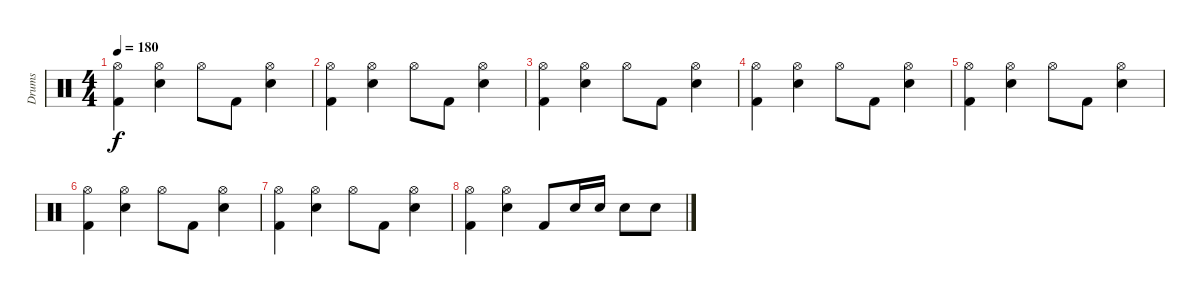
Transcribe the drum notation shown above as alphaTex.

\track ("Drums" "Drums") {instrument percussion}
\staff {score}
\articulation defaults
\ts (4 4)
\tempo 180
\clef neutral
\ks c
("Hi-Hat (open)" "Kick (hit) 2").4{dy f} ("Hi-Hat (open)" "Electric Snare (hit)").4 "Hi-Hat (open)".8 "Kick (hit) 2".8 ("Hi-Hat (open)" "Electric Snare (hit)").4 |
("Hi-Hat (open)" "Kick (hit) 2").4 ("Hi-Hat (open)" "Electric Snare (hit)").4 "Hi-Hat (open)".8 "Kick (hit) 2".8 ("Hi-Hat (open)" "Electric Snare (hit)").4 |
("Hi-Hat (open)" "Kick (hit) 2").4 ("Hi-Hat (open)" "Electric Snare (hit)").4 "Hi-Hat (open)".8 "Kick (hit) 2".8 ("Hi-Hat (open)" "Electric Snare (hit)").4 |
("Hi-Hat (open)" "Kick (hit) 2").4 ("Hi-Hat (open)" "Electric Snare (hit)").4 "Hi-Hat (open)".8 "Kick (hit) 2".8 ("Hi-Hat (open)" "Electric Snare (hit)").4 |
("Hi-Hat (open)" "Kick (hit) 2").4 ("Hi-Hat (open)" "Electric Snare (hit)").4 "Hi-Hat (open)".8 "Kick (hit) 2".8 ("Hi-Hat (open)" "Electric Snare (hit)").4 |
("Hi-Hat (open)" "Kick (hit) 2").4 ("Hi-Hat (open)" "Electric Snare (hit)").4 "Hi-Hat (open)".8 "Kick (hit) 2".8 ("Hi-Hat (open)" "Electric Snare (hit)").4 |
("Hi-Hat (open)" "Kick (hit) 2").4 ("Hi-Hat (open)" "Electric Snare (hit)").4 "Hi-Hat (open)".8 "Kick (hit) 2".8 ("Hi-Hat (open)" "Electric Snare (hit)").4 |
("Hi-Hat (open)" "Kick (hit) 2").4 ("Hi-Hat (open)" "Electric Snare (hit)").4 "Kick (hit) 2".8 "Electric Snare (hit)".16 "Electric Snare (hit)".16 "Electric Snare (hit)".8 "Electric Snare (hit)".8
